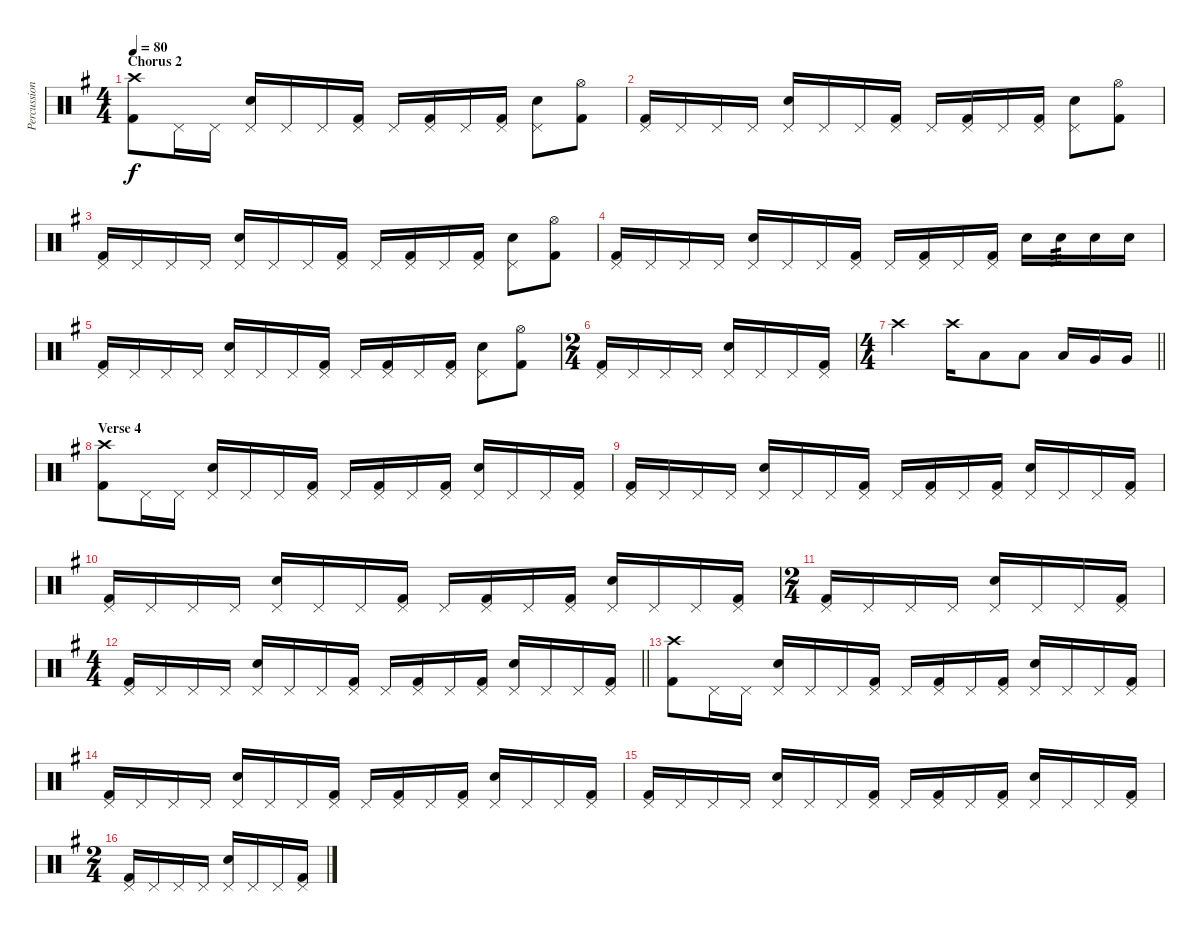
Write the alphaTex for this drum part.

\track ("Percussion" "Percussion") {instrument percussion}
\staff {score}
\articulation defaults
\ts (4 4)
\section ("" "Chorus 2")
\tempo 80
\clef neutral
\ks g
("Crash high (hit)" "Kick (hit) 2").8{dy f} "Pedal Hi-Hat (hit)".16 "Pedal Hi-Hat (hit)".16 ("Pedal Hi-Hat (hit)" "Electric Snare (hit)").16 "Pedal Hi-Hat (hit)".16 "Pedal Hi-Hat (hit)".16 ("Pedal Hi-Hat (hit)" "Kick (hit) 2").16 "Pedal Hi-Hat (hit)".16 ("Pedal Hi-Hat (hit)" "Kick (hit) 2").16 "Pedal Hi-Hat (hit)".16 ("Pedal Hi-Hat (hit)" "Kick (hit) 2").16 ("Pedal Hi-Hat (hit)" "Electric Snare (hit)").8 ("Hi-Hat (open)" "Kick (hit) 2").8 |
("Pedal Hi-Hat (hit)" "Kick (hit) 2").16 "Pedal Hi-Hat (hit)".16 "Pedal Hi-Hat (hit)".16 "Pedal Hi-Hat (hit)".16 ("Pedal Hi-Hat (hit)" "Electric Snare (hit)").16 "Pedal Hi-Hat (hit)".16 "Pedal Hi-Hat (hit)".16 ("Pedal Hi-Hat (hit)" "Kick (hit) 2").16 "Pedal Hi-Hat (hit)".16 ("Pedal Hi-Hat (hit)" "Kick (hit) 2").16 "Pedal Hi-Hat (hit)".16 ("Pedal Hi-Hat (hit)" "Kick (hit) 2").16 ("Pedal Hi-Hat (hit)" "Electric Snare (hit)").8 ("Hi-Hat (open)" "Kick (hit) 2").8 |
("Pedal Hi-Hat (hit)" "Kick (hit) 2").16 "Pedal Hi-Hat (hit)".16 "Pedal Hi-Hat (hit)".16 "Pedal Hi-Hat (hit)".16 ("Pedal Hi-Hat (hit)" "Electric Snare (hit)").16 "Pedal Hi-Hat (hit)".16 "Pedal Hi-Hat (hit)".16 ("Pedal Hi-Hat (hit)" "Kick (hit) 2").16 "Pedal Hi-Hat (hit)".16 ("Pedal Hi-Hat (hit)" "Kick (hit) 2").16 "Pedal Hi-Hat (hit)".16 ("Pedal Hi-Hat (hit)" "Kick (hit) 2").16 ("Pedal Hi-Hat (hit)" "Electric Snare (hit)").8 ("Hi-Hat (open)" "Kick (hit) 2").8 |
("Pedal Hi-Hat (hit)" "Kick (hit) 2").16 "Pedal Hi-Hat (hit)".16 "Pedal Hi-Hat (hit)".16 "Pedal Hi-Hat (hit)".16 ("Pedal Hi-Hat (hit)" "Electric Snare (hit)").16 "Pedal Hi-Hat (hit)".16 "Pedal Hi-Hat (hit)".16 ("Pedal Hi-Hat (hit)" "Kick (hit) 2").16 "Pedal Hi-Hat (hit)".16 ("Pedal Hi-Hat (hit)" "Kick (hit) 2").16 "Pedal Hi-Hat (hit)".16 ("Pedal Hi-Hat (hit)" "Kick (hit) 2").16 "Electric Snare (hit)".16 "Electric Snare (hit)".16{tp 3} "Electric Snare (hit)".16 "Electric Snare (hit)".16 |
("Pedal Hi-Hat (hit)" "Kick (hit) 2").16 "Pedal Hi-Hat (hit)".16 "Pedal Hi-Hat (hit)".16 "Pedal Hi-Hat (hit)".16 ("Pedal Hi-Hat (hit)" "Electric Snare (hit)").16 "Pedal Hi-Hat (hit)".16 "Pedal Hi-Hat (hit)".16 ("Pedal Hi-Hat (hit)" "Kick (hit) 2").16 "Pedal Hi-Hat (hit)".16 ("Pedal Hi-Hat (hit)" "Kick (hit) 2").16 "Pedal Hi-Hat (hit)".16 ("Pedal Hi-Hat (hit)" "Kick (hit) 2").16 ("Pedal Hi-Hat (hit)" "Electric Snare (hit)").8 ("Hi-Hat (open)" "Kick (hit) 2").8 |
\ts (2 4)
("Pedal Hi-Hat (hit)" "Kick (hit) 2").16 "Pedal Hi-Hat (hit)".16 "Pedal Hi-Hat (hit)".16 "Pedal Hi-Hat (hit)".16 ("Pedal Hi-Hat (hit)" "Electric Snare (hit)").16 "Pedal Hi-Hat (hit)".16 "Pedal Hi-Hat (hit)".16 ("Pedal Hi-Hat (hit)" "Kick (hit) 2").16 |
\ts (4 4)
\barLineRight lightlight "Crash high (hit)".2 "Crash high (hit)".16 "Low Tom (hit)".8 "Low Tom (hit)".8 "Low Tom (hit)".16 "Very Low Tom (hit)".16 "Very Low Tom (hit)".16
|
\section ("" "Verse 4")
("Crash high (hit)" "Kick (hit) 2").8 "Pedal Hi-Hat (hit)".16 "Pedal Hi-Hat (hit)".16 ("Pedal Hi-Hat (hit)" "Electric Snare (hit)").16 "Pedal Hi-Hat (hit)".16 "Pedal Hi-Hat (hit)".16 ("Pedal Hi-Hat (hit)" "Kick (hit) 2").16 "Pedal Hi-Hat (hit)".16 ("Pedal Hi-Hat (hit)" "Kick (hit) 2").16 "Pedal Hi-Hat (hit)".16 ("Pedal Hi-Hat (hit)" "Kick (hit) 2").16 ("Pedal Hi-Hat (hit)" "Electric Snare (hit)").16 "Pedal Hi-Hat (hit)".16 "Pedal Hi-Hat (hit)".16 ("Pedal Hi-Hat (hit)" "Kick (hit) 2").16 |
("Pedal Hi-Hat (hit)" "Kick (hit) 2").16 "Pedal Hi-Hat (hit)".16 "Pedal Hi-Hat (hit)".16 "Pedal Hi-Hat (hit)".16 ("Pedal Hi-Hat (hit)" "Electric Snare (hit)").16 "Pedal Hi-Hat (hit)".16 "Pedal Hi-Hat (hit)".16 ("Pedal Hi-Hat (hit)" "Kick (hit) 2").16 "Pedal Hi-Hat (hit)".16 ("Pedal Hi-Hat (hit)" "Kick (hit) 2").16 "Pedal Hi-Hat (hit)".16 ("Pedal Hi-Hat (hit)" "Kick (hit) 2").16 ("Pedal Hi-Hat (hit)" "Electric Snare (hit)").16 "Pedal Hi-Hat (hit)".16 "Pedal Hi-Hat (hit)".16 ("Pedal Hi-Hat (hit)" "Kick (hit) 2").16 |
("Pedal Hi-Hat (hit)" "Kick (hit) 2").16 "Pedal Hi-Hat (hit)".16 "Pedal Hi-Hat (hit)".16 "Pedal Hi-Hat (hit)".16 ("Pedal Hi-Hat (hit)" "Electric Snare (hit)").16 "Pedal Hi-Hat (hit)".16 "Pedal Hi-Hat (hit)".16 ("Pedal Hi-Hat (hit)" "Kick (hit) 2").16 "Pedal Hi-Hat (hit)".16 ("Pedal Hi-Hat (hit)" "Kick (hit) 2").16 "Pedal Hi-Hat (hit)".16 ("Pedal Hi-Hat (hit)" "Kick (hit) 2").16 ("Pedal Hi-Hat (hit)" "Electric Snare (hit)").16 "Pedal Hi-Hat (hit)".16 "Pedal Hi-Hat (hit)".16 ("Pedal Hi-Hat (hit)" "Kick (hit) 2").16 |
\ts (2 4)
("Pedal Hi-Hat (hit)" "Kick (hit) 2").16 "Pedal Hi-Hat (hit)".16 "Pedal Hi-Hat (hit)".16 "Pedal Hi-Hat (hit)".16 ("Pedal Hi-Hat (hit)" "Electric Snare (hit)").16 "Pedal Hi-Hat (hit)".16 "Pedal Hi-Hat (hit)".16 ("Pedal Hi-Hat (hit)" "Kick (hit) 2").16 |
\ts (4 4)
\barLineRight lightlight
("Pedal Hi-Hat (hit)" "Kick (hit) 2").16 "Pedal Hi-Hat (hit)".16 "Pedal Hi-Hat (hit)".16 "Pedal Hi-Hat (hit)".16 ("Pedal Hi-Hat (hit)" "Electric Snare (hit)").16 "Pedal Hi-Hat (hit)".16 "Pedal Hi-Hat (hit)".16 ("Pedal Hi-Hat (hit)" "Kick (hit) 2").16 "Pedal Hi-Hat (hit)".16 ("Pedal Hi-Hat (hit)" "Kick (hit) 2").16 "Pedal Hi-Hat (hit)".16 ("Pedal Hi-Hat (hit)" "Kick (hit) 2").16 ("Pedal Hi-Hat (hit)" "Electric Snare (hit)").16 "Pedal Hi-Hat (hit)".16 "Pedal Hi-Hat (hit)".16 ("Pedal Hi-Hat (hit)" "Kick (hit) 2").16 |
("Crash high (hit)" "Kick (hit) 2").8 "Pedal Hi-Hat (hit)".16 "Pedal Hi-Hat (hit)".16 ("Pedal Hi-Hat (hit)" "Electric Snare (hit)").16 "Pedal Hi-Hat (hit)".16 "Pedal Hi-Hat (hit)".16 ("Pedal Hi-Hat (hit)" "Kick (hit) 2").16 "Pedal Hi-Hat (hit)".16 ("Pedal Hi-Hat (hit)" "Kick (hit) 2").16 "Pedal Hi-Hat (hit)".16 ("Pedal Hi-Hat (hit)" "Kick (hit) 2").16 ("Pedal Hi-Hat (hit)" "Electric Snare (hit)").16 "Pedal Hi-Hat (hit)".16 "Pedal Hi-Hat (hit)".16 ("Pedal Hi-Hat (hit)" "Kick (hit) 2").16 |
("Pedal Hi-Hat (hit)" "Kick (hit) 2").16 "Pedal Hi-Hat (hit)".16 "Pedal Hi-Hat (hit)".16 "Pedal Hi-Hat (hit)".16 ("Pedal Hi-Hat (hit)" "Electric Snare (hit)").16 "Pedal Hi-Hat (hit)".16 "Pedal Hi-Hat (hit)".16 ("Pedal Hi-Hat (hit)" "Kick (hit) 2").16 "Pedal Hi-Hat (hit)".16 ("Pedal Hi-Hat (hit)" "Kick (hit) 2").16 "Pedal Hi-Hat (hit)".16 ("Pedal Hi-Hat (hit)" "Kick (hit) 2").16 ("Pedal Hi-Hat (hit)" "Electric Snare (hit)").16 "Pedal Hi-Hat (hit)".16 "Pedal Hi-Hat (hit)".16 ("Pedal Hi-Hat (hit)" "Kick (hit) 2").16 |
("Pedal Hi-Hat (hit)" "Kick (hit) 2").16 "Pedal Hi-Hat (hit)".16 "Pedal Hi-Hat (hit)".16 "Pedal Hi-Hat (hit)".16 ("Pedal Hi-Hat (hit)" "Electric Snare (hit)").16 "Pedal Hi-Hat (hit)".16 "Pedal Hi-Hat (hit)".16 ("Pedal Hi-Hat (hit)" "Kick (hit) 2").16 "Pedal Hi-Hat (hit)".16 ("Pedal Hi-Hat (hit)" "Kick (hit) 2").16 "Pedal Hi-Hat (hit)".16 ("Pedal Hi-Hat (hit)" "Kick (hit) 2").16 ("Pedal Hi-Hat (hit)" "Electric Snare (hit)").16 "Pedal Hi-Hat (hit)".16 "Pedal Hi-Hat (hit)".16 ("Pedal Hi-Hat (hit)" "Kick (hit) 2").16 |
\ts (2 4)
("Pedal Hi-Hat (hit)" "Kick (hit) 2").16 "Pedal Hi-Hat (hit)".16 "Pedal Hi-Hat (hit)".16 "Pedal Hi-Hat (hit)".16 ("Pedal Hi-Hat (hit)" "Electric Snare (hit)").16 "Pedal Hi-Hat (hit)".16 "Pedal Hi-Hat (hit)".16 ("Pedal Hi-Hat (hit)" "Kick (hit) 2").16
